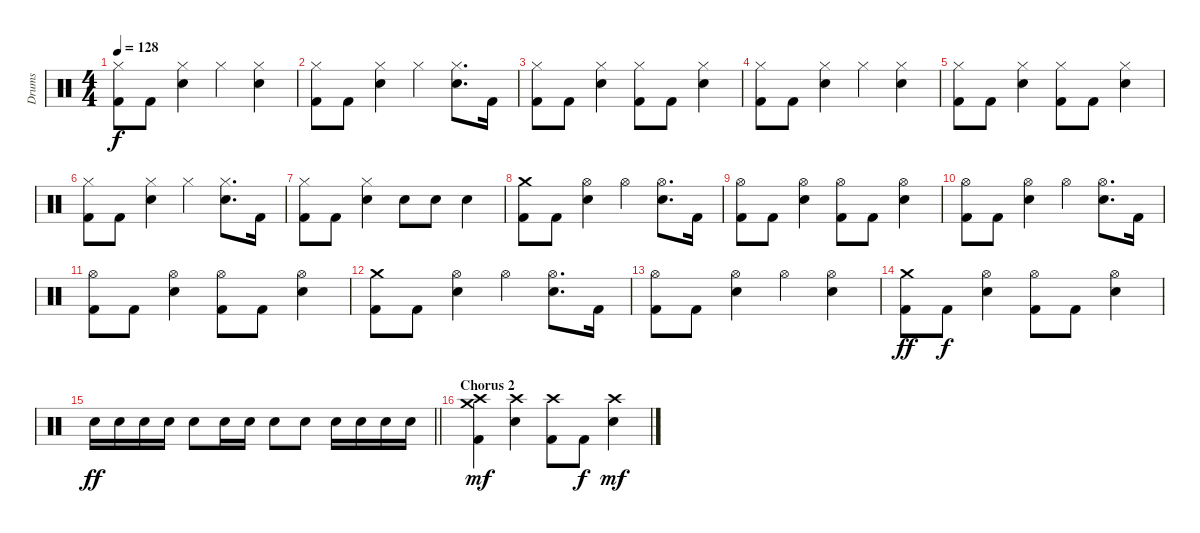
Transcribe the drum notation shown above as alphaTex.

\track ("Drums" "Drums") {instrument percussion}
\staff {score}
\articulation defaults
\ts (4 4)
\tempo 128
\clef neutral
\ks c
("Hi-Hat (closed)" "Kick (hit) 2").8{dy f} "Kick (hit) 2".8 ("Hi-Hat (closed)" "Electric Snare (hit)").4 "Hi-Hat (closed)".4 ("Hi-Hat (closed)" "Electric Snare (hit)").4 |
("Hi-Hat (closed)" "Kick (hit) 2").8 "Kick (hit) 2".8 ("Hi-Hat (closed)" "Electric Snare (hit)").4 "Hi-Hat (closed)".4 ("Hi-Hat (closed)" "Electric Snare (hit)").8{d} "Kick (hit) 2".16 |
("Hi-Hat (closed)" "Kick (hit) 2").8 "Kick (hit) 2".8 ("Hi-Hat (closed)" "Electric Snare (hit)").4 ("Hi-Hat (closed)" "Kick (hit) 2").8 "Kick (hit) 2".8 ("Hi-Hat (closed)" "Electric Snare (hit)").4 |
("Hi-Hat (closed)" "Kick (hit) 2").8 "Kick (hit) 2".8 ("Hi-Hat (closed)" "Electric Snare (hit)").4 "Hi-Hat (closed)".4 ("Hi-Hat (closed)" "Electric Snare (hit)").4 |
("Hi-Hat (closed)" "Kick (hit) 2").8 "Kick (hit) 2".8 ("Hi-Hat (closed)" "Electric Snare (hit)").4 ("Hi-Hat (closed)" "Kick (hit) 2").8 "Kick (hit) 2".8 ("Hi-Hat (closed)" "Electric Snare (hit)").4 |
("Hi-Hat (closed)" "Kick (hit) 2").8 "Kick (hit) 2".8 ("Hi-Hat (closed)" "Electric Snare (hit)").4 "Hi-Hat (closed)".4 ("Hi-Hat (closed)" "Electric Snare (hit)").8{d} "Kick (hit) 2".16 |
("Hi-Hat (closed)" "Kick (hit) 2").8 "Kick (hit) 2".8 ("Hi-Hat (closed)" "Electric Snare (hit)").4 "Electric Snare (hit)".8 "Electric Snare (hit)".8 "Electric Snare (hit)".4 |
("Crash medium (hit)" "Kick (hit) 2").8 "Kick (hit) 2".8 ("Hi-Hat (open)" "Electric Snare (hit)").4 "Hi-Hat (open)".4 ("Hi-Hat (open)" "Electric Snare (hit)").8{d} "Kick (hit) 2".16 |
("Hi-Hat (open)" "Kick (hit) 2").8 "Kick (hit) 2".8 ("Hi-Hat (open)" "Electric Snare (hit)").4 ("Hi-Hat (open)" "Kick (hit) 2").8 "Kick (hit) 2".8 ("Hi-Hat (open)" "Electric Snare (hit)").4 |
("Hi-Hat (open)" "Kick (hit) 2").8 "Kick (hit) 2".8 ("Hi-Hat (open)" "Electric Snare (hit)").4 "Hi-Hat (open)".4 ("Hi-Hat (open)" "Electric Snare (hit)").8{d} "Kick (hit) 2".16 |
("Hi-Hat (open)" "Kick (hit) 2").8 "Kick (hit) 2".8 ("Hi-Hat (open)" "Electric Snare (hit)").4 ("Hi-Hat (open)" "Kick (hit) 2").8 "Kick (hit) 2".8 ("Hi-Hat (open)" "Electric Snare (hit)").4 |
("Crash medium (hit)" "Kick (hit) 2").8 "Kick (hit) 2".8 ("Hi-Hat (open)" "Electric Snare (hit)").4 "Hi-Hat (open)".4 ("Hi-Hat (open)" "Electric Snare (hit)").8{d} "Kick (hit) 2".16 |
("Hi-Hat (open)" "Kick (hit) 2").8 "Kick (hit) 2".8 ("Hi-Hat (open)" "Electric Snare (hit)").4 "Hi-Hat (open)".4 ("Hi-Hat (open)" "Electric Snare (hit)").4 |
("Crash medium (hit)" "Kick (hit) 2").8{dy ff} "Kick (hit) 2".8{dy f} ("Hi-Hat (open)" "Electric Snare (hit)").4 ("Hi-Hat (open)" "Kick (hit) 2").8 "Kick (hit) 2".8 ("Hi-Hat (open)" "Electric Snare (hit)").4 |
\barLineRight lightlight "Electric Snare (hit)".16{dy ff} "Electric Snare (hit)".16 "Electric Snare (hit)".16 "Electric Snare (hit)".16 "Electric Snare (hit)".8 "Electric Snare (hit)".16 "Electric Snare (hit)".16 "Electric Snare (hit)".8 "Electric Snare (hit)".8 "Electric Snare (hit)".16 "Electric Snare (hit)".16 "Electric Snare (hit)".16 "Electric Snare (hit)".16
|
\section ("" "Chorus 2")
("Crash medium (hit)" "Crash high (hit)" "Kick (hit) 2").4{dy mf} ("Crash high (hit)" "Electric Snare (hit)").4 ("Crash high (hit)" "Kick (hit) 2").8 "Kick (hit) 2".8{dy f} ("Crash high (hit)" "Electric Snare (hit)").4{dy mf}
